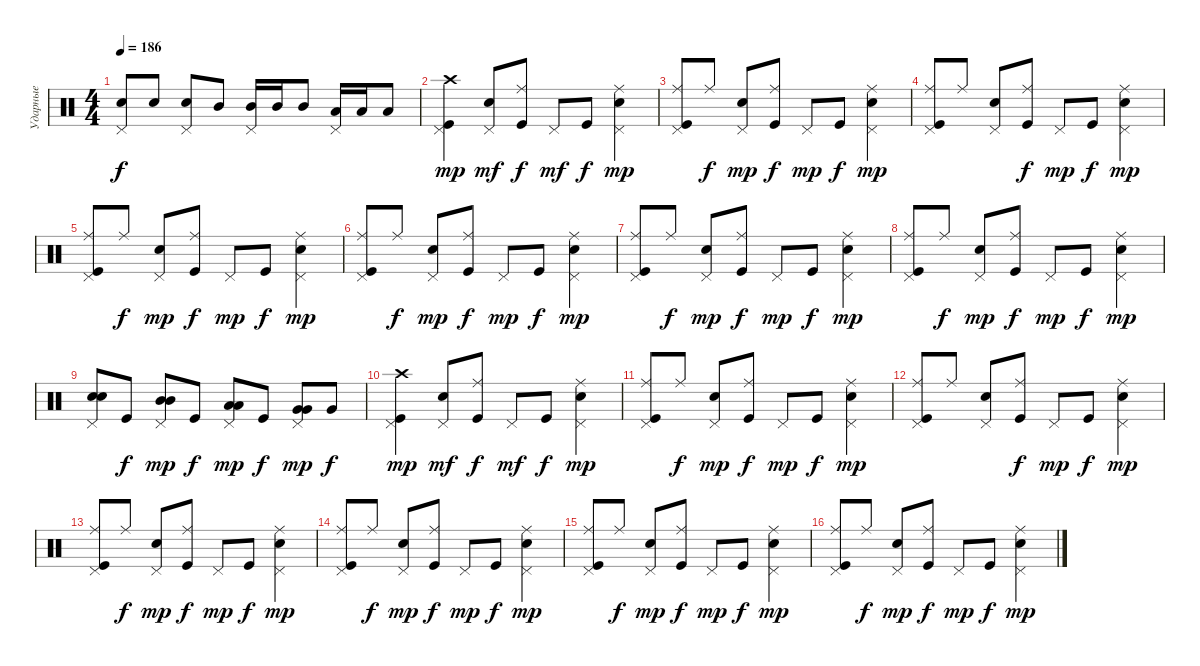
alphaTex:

\track ("Ударные" "Ударные") {instrument percussion}
\staff {score}
\articulation defaults
\ts (4 4)
\tempo 186
\clef neutral
\ks aminor
("Snare (hit) 2" "Pedal Hi-Hat (hit)").8{dy f} "Snare (hit) 2".8 ("Snare (hit) 2" "Pedal Hi-Hat (hit)").8 "Mid Tom (hit)".8 ("Mid Tom (hit)" "Pedal Hi-Hat (hit)").16 "Mid Tom (hit)".16 "Mid Tom (hit)".8 ("Low Tom (hit)" "Pedal Hi-Hat (hit)").16 "Low Tom (hit)".16 "Low Tom (hit)".8 |
("Kick (hit)" "Crash high (hit)" "Pedal Hi-Hat (hit)").4{dy mp} ("Snare (hit) 2" "Pedal Hi-Hat (hit)").8{dy mf} ("Kick (hit)" "Ride (middle)").8{dy f} "Pedal Hi-Hat (hit)".8{dy mf} "Kick (hit)".8{dy f} ("Snare (hit) 2" "Ride (middle)" "Pedal Hi-Hat (hit)").4{dy mp} |
("Pedal Hi-Hat (hit)" "Ride (middle)" "Kick (hit)").8 "Ride (middle)".8{dy f} ("Snare (hit) 2" "Pedal Hi-Hat (hit)").8{dy mp} ("Kick (hit)" "Ride (middle)").8{dy f} "Pedal Hi-Hat (hit)".8{dy mp} "Kick (hit)".8{dy f} ("Snare (hit) 2" "Ride (middle)" "Pedal Hi-Hat (hit)").4{dy mp} |
("Pedal Hi-Hat (hit)" "Ride (middle)" "Kick (hit)").8 "Ride (middle)".8 ("Snare (hit) 2" "Pedal Hi-Hat (hit)").8 ("Kick (hit)" "Ride (middle)").8{dy f} "Pedal Hi-Hat (hit)".8{dy mp} "Kick (hit)".8{dy f} ("Snare (hit) 2" "Ride (middle)" "Pedal Hi-Hat (hit)").4{dy mp} |
("Pedal Hi-Hat (hit)" "Ride (middle)" "Kick (hit)").8 "Ride (middle)".8{dy f} ("Snare (hit) 2" "Pedal Hi-Hat (hit)").8{dy mp} ("Kick (hit)" "Ride (middle)").8{dy f} "Pedal Hi-Hat (hit)".8{dy mp} "Kick (hit)".8{dy f} ("Snare (hit) 2" "Ride (middle)" "Pedal Hi-Hat (hit)").4{dy mp} |
("Pedal Hi-Hat (hit)" "Ride (middle)" "Kick (hit)").8 "Ride (middle)".8{dy f} ("Snare (hit) 2" "Pedal Hi-Hat (hit)").8{dy mp} ("Kick (hit)" "Ride (middle)").8{dy f} "Pedal Hi-Hat (hit)".8{dy mp} "Kick (hit)".8{dy f} ("Snare (hit) 2" "Ride (middle)" "Pedal Hi-Hat (hit)").4{dy mp} |
("Pedal Hi-Hat (hit)" "Ride (middle)" "Kick (hit)").8 "Ride (middle)".8{dy f} ("Snare (hit) 2" "Pedal Hi-Hat (hit)").8{dy mp} ("Kick (hit)" "Ride (middle)").8{dy f} "Pedal Hi-Hat (hit)".8{dy mp} "Kick (hit)".8{dy f} ("Snare (hit) 2" "Ride (middle)" "Pedal Hi-Hat (hit)").4{dy mp} |
("Pedal Hi-Hat (hit)" "Ride (middle)" "Kick (hit)").8 "Ride (middle)".8{dy f} ("Snare (hit) 2" "Pedal Hi-Hat (hit)").8{dy mp} ("Kick (hit)" "Ride (middle)").8{dy f} "Pedal Hi-Hat (hit)".8{dy mp} "Kick (hit)".8{dy f} ("Snare (hit) 2" "Ride (middle)" "Pedal Hi-Hat (hit)").4{dy mp} |
("Snare (hit) 2" "Snare (hit) 2" "Pedal Hi-Hat (hit)").8{bd 240} "Kick (hit)".8{dy f} ("Pedal Hi-Hat (hit)" "Mid Tom (hit)" "Mid Tom (hit)").8{bd 480 dy mp} "Kick (hit)".8{dy f} ("Low Tom (hit)" "Low Tom (hit)" "Pedal Hi-Hat (hit)").8{bd 480 dy mp} "Kick (hit)".8{dy f} ("Very Low Tom (hit)" "Pedal Hi-Hat (hit)" "Very Low Tom (hit)").8{dy mp} "Very Low Tom (hit)".8{dy f} |
("Kick (hit)" "Crash high (hit)" "Pedal Hi-Hat (hit)").4{dy mp} ("Snare (hit) 2" "Pedal Hi-Hat (hit)").8{dy mf} ("Kick (hit)" "Ride (middle)").8{dy f} "Pedal Hi-Hat (hit)".8{dy mf} "Kick (hit)".8{dy f} ("Snare (hit) 2" "Ride (middle)" "Pedal Hi-Hat (hit)").4{dy mp} |
("Pedal Hi-Hat (hit)" "Ride (middle)" "Kick (hit)").8 "Ride (middle)".8{dy f} ("Snare (hit) 2" "Pedal Hi-Hat (hit)").8{dy mp} ("Kick (hit)" "Ride (middle)").8{dy f} "Pedal Hi-Hat (hit)".8{dy mp} "Kick (hit)".8{dy f} ("Snare (hit) 2" "Ride (middle)" "Pedal Hi-Hat (hit)").4{dy mp} |
("Pedal Hi-Hat (hit)" "Ride (middle)" "Kick (hit)").8 "Ride (middle)".8 ("Snare (hit) 2" "Pedal Hi-Hat (hit)").8 ("Kick (hit)" "Ride (middle)").8{dy f} "Pedal Hi-Hat (hit)".8{dy mp} "Kick (hit)".8{dy f} ("Snare (hit) 2" "Ride (middle)" "Pedal Hi-Hat (hit)").4{dy mp} |
("Pedal Hi-Hat (hit)" "Ride (middle)" "Kick (hit)").8 "Ride (middle)".8{dy f} ("Snare (hit) 2" "Pedal Hi-Hat (hit)").8{dy mp} ("Kick (hit)" "Ride (middle)").8{dy f} "Pedal Hi-Hat (hit)".8{dy mp} "Kick (hit)".8{dy f} ("Snare (hit) 2" "Ride (middle)" "Pedal Hi-Hat (hit)").4{dy mp} |
("Pedal Hi-Hat (hit)" "Ride (middle)" "Kick (hit)").8 "Ride (middle)".8{dy f} ("Snare (hit) 2" "Pedal Hi-Hat (hit)").8{dy mp} ("Kick (hit)" "Ride (middle)").8{dy f} "Pedal Hi-Hat (hit)".8{dy mp} "Kick (hit)".8{dy f} ("Snare (hit) 2" "Ride (middle)" "Pedal Hi-Hat (hit)").4{dy mp} |
("Pedal Hi-Hat (hit)" "Ride (middle)" "Kick (hit)").8 "Ride (middle)".8{dy f} ("Snare (hit) 2" "Pedal Hi-Hat (hit)").8{dy mp} ("Kick (hit)" "Ride (middle)").8{dy f} "Pedal Hi-Hat (hit)".8{dy mp} "Kick (hit)".8{dy f} ("Snare (hit) 2" "Ride (middle)" "Pedal Hi-Hat (hit)").4{dy mp} |
("Pedal Hi-Hat (hit)" "Ride (middle)" "Kick (hit)").8 "Ride (middle)".8{dy f} ("Snare (hit) 2" "Pedal Hi-Hat (hit)").8{dy mp} ("Kick (hit)" "Ride (middle)").8{dy f} "Pedal Hi-Hat (hit)".8{dy mp} "Kick (hit)".8{dy f} ("Snare (hit) 2" "Ride (middle)" "Pedal Hi-Hat (hit)").4{dy mp}
